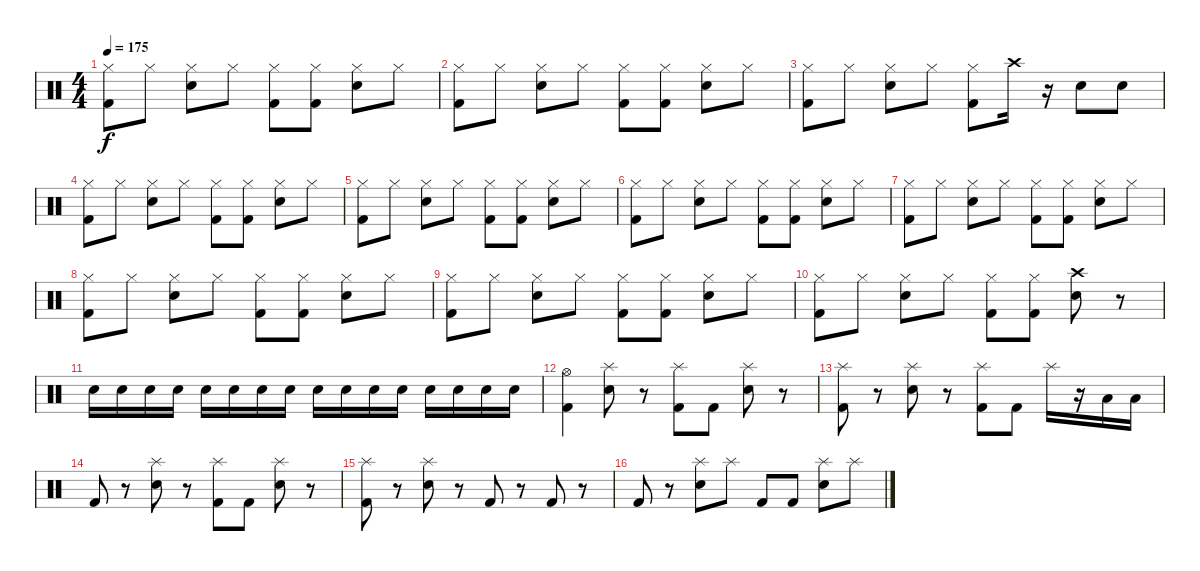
\track "" {instrument percussion}
\staff {score}
\articulation defaults
\ts (4 4)
\tempo 175
\clef neutral
\ks c
("Hi-Hat (closed)" "Kick (hit) 2").8{dy f} "Hi-Hat (closed)".8 ("Hi-Hat (closed)" "Electric Snare (hit)").8 "Hi-Hat (closed)".8 ("Hi-Hat (closed)" "Kick (hit) 2").8 ("Hi-Hat (closed)" "Kick (hit) 2").8 ("Hi-Hat (closed)" "Electric Snare (hit)").8 "Hi-Hat (closed)".8 |
("Hi-Hat (closed)" "Kick (hit) 2").8 "Hi-Hat (closed)".8 ("Hi-Hat (closed)" "Electric Snare (hit)").8 "Hi-Hat (closed)".8 ("Hi-Hat (closed)" "Kick (hit) 2").8 ("Hi-Hat (closed)" "Kick (hit) 2").8 ("Hi-Hat (closed)" "Electric Snare (hit)").8 "Hi-Hat (closed)".8 |
("Hi-Hat (closed)" "Kick (hit) 2").8 "Hi-Hat (closed)".8 ("Hi-Hat (closed)" "Electric Snare (hit)").8 "Hi-Hat (closed)".8 ("Hi-Hat (closed)" "Kick (hit) 2").8 "Crash high (hit)".16 r.16 "Electric Snare (hit)".8 "Electric Snare (hit)".8 |
("Hi-Hat (closed)" "Kick (hit) 2").8 "Hi-Hat (closed)".8 ("Hi-Hat (closed)" "Electric Snare (hit)").8 "Hi-Hat (closed)".8 ("Hi-Hat (closed)" "Kick (hit) 2").8 ("Hi-Hat (closed)" "Kick (hit) 2").8 ("Hi-Hat (closed)" "Electric Snare (hit)").8 "Hi-Hat (closed)".8 |
("Hi-Hat (closed)" "Kick (hit) 2").8 "Hi-Hat (closed)".8 ("Hi-Hat (closed)" "Electric Snare (hit)").8 "Hi-Hat (closed)".8 ("Hi-Hat (closed)" "Kick (hit) 2").8 ("Hi-Hat (closed)" "Kick (hit) 2").8 ("Hi-Hat (closed)" "Electric Snare (hit)").8 "Hi-Hat (closed)".8 |
("Hi-Hat (closed)" "Kick (hit) 2").8 "Hi-Hat (closed)".8 ("Hi-Hat (closed)" "Electric Snare (hit)").8 "Hi-Hat (closed)".8 ("Hi-Hat (closed)" "Kick (hit) 2").8 ("Hi-Hat (closed)" "Kick (hit) 2").8 ("Hi-Hat (closed)" "Electric Snare (hit)").8 "Hi-Hat (closed)".8 |
("Hi-Hat (closed)" "Kick (hit) 2").8 "Hi-Hat (closed)".8 ("Hi-Hat (closed)" "Electric Snare (hit)").8 "Hi-Hat (closed)".8 ("Hi-Hat (closed)" "Kick (hit) 2").8 ("Hi-Hat (closed)" "Kick (hit) 2").8 ("Hi-Hat (closed)" "Electric Snare (hit)").8 "Hi-Hat (closed)".8 |
("Hi-Hat (closed)" "Kick (hit) 2").8 "Hi-Hat (closed)".8 ("Hi-Hat (closed)" "Electric Snare (hit)").8 "Hi-Hat (closed)".8 ("Hi-Hat (closed)" "Kick (hit) 2").8 ("Hi-Hat (closed)" "Kick (hit) 2").8 ("Hi-Hat (closed)" "Electric Snare (hit)").8 "Hi-Hat (closed)".8 |
("Hi-Hat (closed)" "Kick (hit) 2").8 "Hi-Hat (closed)".8 ("Hi-Hat (closed)" "Electric Snare (hit)").8 "Hi-Hat (closed)".8 ("Hi-Hat (closed)" "Kick (hit) 2").8 ("Hi-Hat (closed)" "Kick (hit) 2").8 ("Hi-Hat (closed)" "Electric Snare (hit)").8 "Hi-Hat (closed)".8 |
("Hi-Hat (closed)" "Kick (hit) 2").8 "Hi-Hat (closed)".8 ("Hi-Hat (closed)" "Electric Snare (hit)").8 "Hi-Hat (closed)".8 ("Hi-Hat (closed)" "Kick (hit) 2").8 ("Hi-Hat (closed)" "Kick (hit) 2").8 ("Crash high (hit)" "Electric Snare (hit)").8 r.8 |
"Electric Snare (hit)".16 "Electric Snare (hit)".16 "Electric Snare (hit)".16 "Electric Snare (hit)".16 "Electric Snare (hit)".16 "Electric Snare (hit)".16 "Electric Snare (hit)".16 "Electric Snare (hit)".16 "Electric Snare (hit)".16 "Electric Snare (hit)".16 "Electric Snare (hit)".16 "Electric Snare (hit)".16 "Electric Snare (hit)".16 "Electric Snare (hit)".16 "Electric Snare (hit)".16 "Electric Snare (hit)".16 |
("Hi-Hat (open)" "Kick (hit) 2").4 ("Splash (hit)" "Electric Snare (hit)").8 r.8 ("Splash (hit)" "Kick (hit) 2").8 "Kick (hit) 2".8 ("Splash (hit)" "Electric Snare (hit)").8 r.8 |
("Splash (hit)" "Kick (hit) 2").8 r.8 ("Splash (hit)" "Electric Snare (hit)").8 r.8 ("Splash (hit)" "Kick (hit) 2").8 "Kick (hit) 2".8 "Splash (hit)".16 r.16 "Low Tom (hit)".16 "Low Tom (hit)".16 |
"Kick (hit) 2".8 r.8 ("Splash (hit)" "Electric Snare (hit)").8 r.8 ("Splash (hit)" "Kick (hit) 2").8 "Kick (hit) 2".8 ("Splash (hit)" "Electric Snare (hit)").8 r.8 |
("Splash (hit)" "Kick (hit) 2").8 r.8 ("Splash (hit)" "Electric Snare (hit)").8 r.8 "Kick (hit) 2".8 r.8 "Kick (hit) 2".8 r.8 |
"Kick (hit) 2".8 r.8 ("Splash (hit)" "Electric Snare (hit)").8 "Splash (hit)".8 "Kick (hit) 2".8 "Kick (hit) 2".8 ("Splash (hit)" "Electric Snare (hit)").8 "Splash (hit)".8
